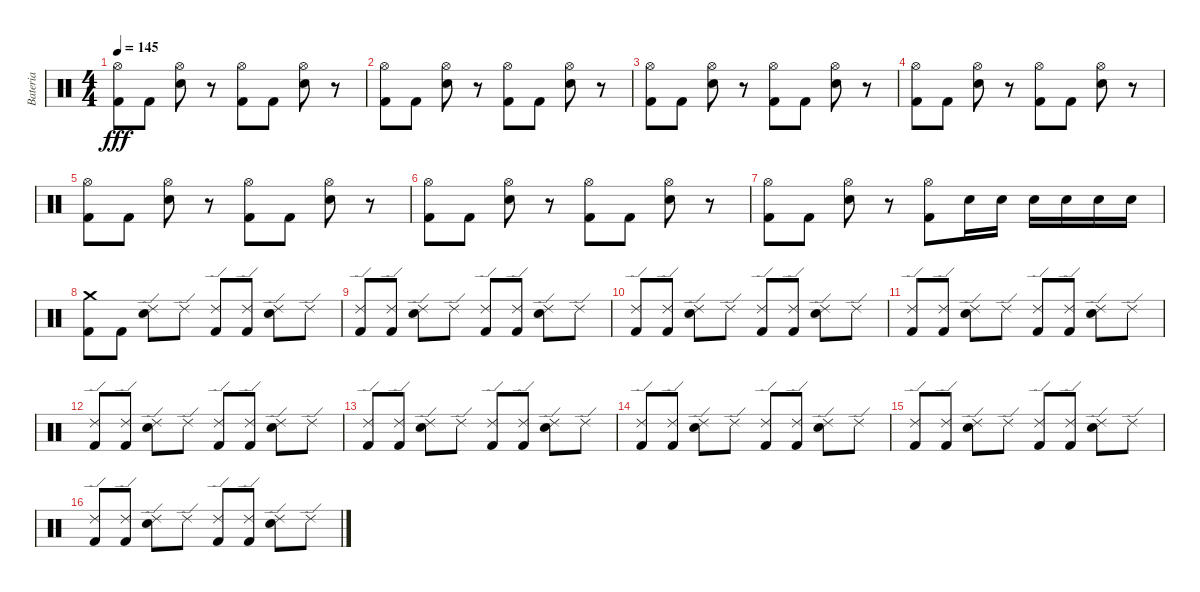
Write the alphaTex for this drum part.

\track ("Bateria" "Bateria") {instrument percussion}
\staff {score}
\articulation defaults
\ts (4 4)
\tempo 145
\clef neutral
\ks c
("Hi-Hat (open)" "Kick (hit) 2").8{dy fff} "Kick (hit) 2".8 ("Hi-Hat (open)" "Electric Snare (hit)").8 r.8 ("Hi-Hat (open)" "Kick (hit) 2").8 "Kick (hit) 2".8 ("Hi-Hat (open)" "Electric Snare (hit)").8 r.8 |
("Hi-Hat (open)" "Kick (hit) 2").8 "Kick (hit) 2".8 ("Hi-Hat (open)" "Electric Snare (hit)").8 r.8 ("Hi-Hat (open)" "Kick (hit) 2").8 "Kick (hit) 2".8 ("Hi-Hat (open)" "Electric Snare (hit)").8 r.8 |
("Hi-Hat (open)" "Kick (hit) 2").8 "Kick (hit) 2".8 ("Hi-Hat (open)" "Electric Snare (hit)").8 r.8 ("Hi-Hat (open)" "Kick (hit) 2").8 "Kick (hit) 2".8 ("Hi-Hat (open)" "Electric Snare (hit)").8 r.8 |
("Hi-Hat (open)" "Kick (hit) 2").8 "Kick (hit) 2".8 ("Hi-Hat (open)" "Electric Snare (hit)").8 r.8 ("Hi-Hat (open)" "Kick (hit) 2").8 "Kick (hit) 2".8 ("Hi-Hat (open)" "Electric Snare (hit)").8 r.8 |
("Hi-Hat (open)" "Kick (hit) 2").8 "Kick (hit) 2".8 ("Hi-Hat (open)" "Electric Snare (hit)").8 r.8 ("Hi-Hat (open)" "Kick (hit) 2").8 "Kick (hit) 2".8 ("Hi-Hat (open)" "Electric Snare (hit)").8 r.8 |
("Hi-Hat (open)" "Kick (hit) 2").8 "Kick (hit) 2".8 ("Hi-Hat (open)" "Electric Snare (hit)").8 r.8 ("Hi-Hat (open)" "Kick (hit) 2").8 "Kick (hit) 2".8 ("Hi-Hat (open)" "Electric Snare (hit)").8 r.8 |
("Hi-Hat (open)" "Kick (hit) 2").8 "Kick (hit) 2".8 ("Hi-Hat (open)" "Electric Snare (hit)").8 r.8 ("Hi-Hat (open)" "Kick (hit) 2").8 "Electric Snare (hit)".16 "Electric Snare (hit)".16 "Electric Snare (hit)".16 "Electric Snare (hit)".16 "Electric Snare (hit)".16 "Electric Snare (hit)".16 |
("Crash medium (hit)" "Kick (hit) 2").8 "Kick (hit) 2".8 ("Ride (edge) 2" "Electric Snare (hit)").8 "Ride (edge) 2".8 ("Ride (edge) 2" "Kick (hit) 2").8 ("Ride (edge) 2" "Kick (hit) 2").8 ("Ride (edge) 2" "Electric Snare (hit)").8 "Ride (edge) 2".8 |
("Ride (edge) 2" "Kick (hit) 2").8 ("Ride (edge) 2" "Kick (hit) 2").8 ("Ride (edge) 2" "Electric Snare (hit)").8 "Ride (edge) 2".8 ("Ride (edge) 2" "Kick (hit) 2").8 ("Ride (edge) 2" "Kick (hit) 2").8 ("Ride (edge) 2" "Electric Snare (hit)").8 "Ride (edge) 2".8 |
("Ride (edge) 2" "Kick (hit) 2").8 ("Ride (edge) 2" "Kick (hit) 2").8 ("Ride (edge) 2" "Electric Snare (hit)").8 "Ride (edge) 2".8 ("Ride (edge) 2" "Kick (hit) 2").8 ("Ride (edge) 2" "Kick (hit) 2").8 ("Ride (edge) 2" "Electric Snare (hit)").8 "Ride (edge) 2".8 |
("Ride (edge) 2" "Kick (hit) 2").8 ("Ride (edge) 2" "Kick (hit) 2").8 ("Ride (edge) 2" "Electric Snare (hit)").8 "Ride (edge) 2".8 ("Ride (edge) 2" "Kick (hit) 2").8 ("Ride (edge) 2" "Kick (hit) 2").8 ("Ride (edge) 2" "Electric Snare (hit)").8 "Ride (edge) 2".8 |
("Ride (edge) 2" "Kick (hit) 2").8 ("Ride (edge) 2" "Kick (hit) 2").8 ("Ride (edge) 2" "Electric Snare (hit)").8 "Ride (edge) 2".8 ("Ride (edge) 2" "Kick (hit) 2").8 ("Ride (edge) 2" "Kick (hit) 2").8 ("Ride (edge) 2" "Electric Snare (hit)").8 "Ride (edge) 2".8 |
("Ride (edge) 2" "Kick (hit) 2").8 ("Ride (edge) 2" "Kick (hit) 2").8 ("Ride (edge) 2" "Electric Snare (hit)").8 "Ride (edge) 2".8 ("Ride (edge) 2" "Kick (hit) 2").8 ("Ride (edge) 2" "Kick (hit) 2").8 ("Ride (edge) 2" "Electric Snare (hit)").8 "Ride (edge) 2".8 |
("Ride (edge) 2" "Kick (hit) 2").8 ("Ride (edge) 2" "Kick (hit) 2").8 ("Ride (edge) 2" "Electric Snare (hit)").8 "Ride (edge) 2".8 ("Ride (edge) 2" "Kick (hit) 2").8 ("Ride (edge) 2" "Kick (hit) 2").8 ("Ride (edge) 2" "Electric Snare (hit)").8 "Ride (edge) 2".8 |
("Ride (edge) 2" "Kick (hit) 2").8 ("Ride (edge) 2" "Kick (hit) 2").8 ("Ride (edge) 2" "Electric Snare (hit)").8 "Ride (edge) 2".8 ("Ride (edge) 2" "Kick (hit) 2").8 ("Ride (edge) 2" "Kick (hit) 2").8 ("Ride (edge) 2" "Electric Snare (hit)").8 "Ride (edge) 2".8 |
("Ride (edge) 2" "Kick (hit) 2").8 ("Ride (edge) 2" "Kick (hit) 2").8 ("Ride (edge) 2" "Electric Snare (hit)").8 "Ride (edge) 2".8 ("Ride (edge) 2" "Kick (hit) 2").8 ("Ride (edge) 2" "Kick (hit) 2").8 ("Ride (edge) 2" "Electric Snare (hit)").8 "Ride (edge) 2".8
